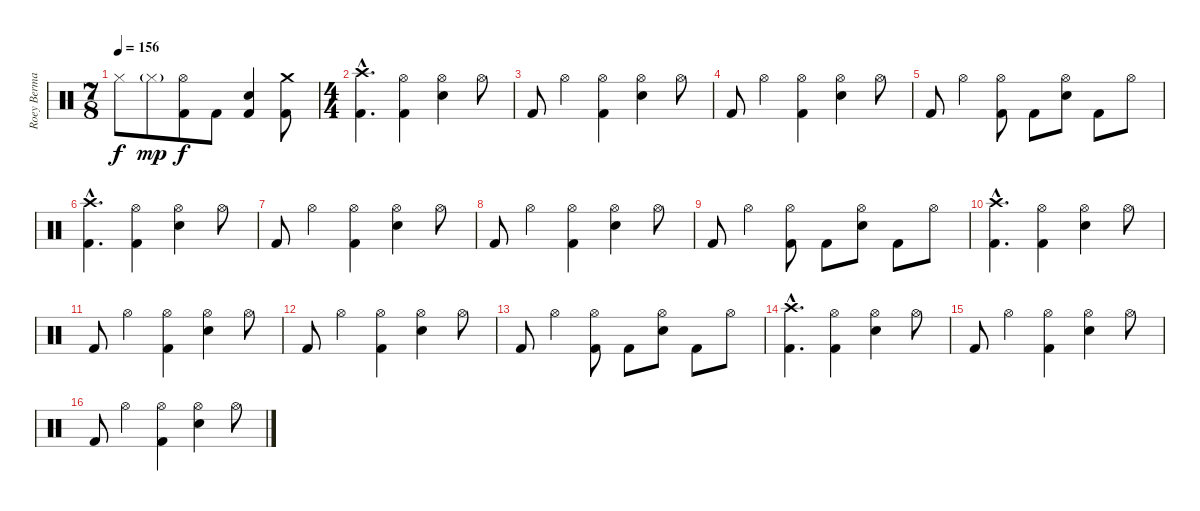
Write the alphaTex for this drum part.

\track ("Roey Berman" "Roey Berma") {instrument percussion}
\staff {score}
\articulation defaults
\ts (7 8)
\tempo 156
\clef neutral
\ks c "Hi-Hat (closed)".8{dy f} "Hi-Hat (closed)"{g}.8{dy mp}
("Hi-Hat (open)" "Kick (hit) 2").8{dy f} "Kick (hit) 2".8 ("Electric Snare (hit)" "Kick (hit) 2").4 ("Crash medium (hit)" "Kick (hit) 2").8 |
\ts (4 4)
("Crash high (hit)"{hac} "Kick (hit) 2"{hac}).4{d} ("Hi-Hat (open)" "Kick (hit) 2").4 ("Hi-Hat (open)" "Electric Snare (hit)").4 "Hi-Hat (open)".8 |
"Kick (hit) 2".8 "Hi-Hat (open)".4 ("Hi-Hat (open)" "Kick (hit) 2").4 ("Hi-Hat (open)" "Electric Snare (hit)").4 "Hi-Hat (open)".8 |
"Kick (hit) 2".8 "Hi-Hat (open)".4 ("Hi-Hat (open)" "Kick (hit) 2").4 ("Hi-Hat (open)" "Electric Snare (hit)").4 "Hi-Hat (open)".8 |
"Kick (hit) 2".8 "Hi-Hat (open)".4 ("Hi-Hat (open)" "Kick (hit) 2").8 "Kick (hit) 2".8 ("Hi-Hat (open)" "Electric Snare (hit)").8 "Kick (hit) 2".8 "Hi-Hat (open)".8 |
("Crash high (hit)"{hac} "Kick (hit) 2"{hac}).4{d} ("Hi-Hat (open)" "Kick (hit) 2").4 ("Hi-Hat (open)" "Electric Snare (hit)").4 "Hi-Hat (open)".8 |
"Kick (hit) 2".8 "Hi-Hat (open)".4 ("Hi-Hat (open)" "Kick (hit) 2").4 ("Hi-Hat (open)" "Electric Snare (hit)").4 "Hi-Hat (open)".8 |
"Kick (hit) 2".8 "Hi-Hat (open)".4 ("Hi-Hat (open)" "Kick (hit) 2").4 ("Hi-Hat (open)" "Electric Snare (hit)").4 "Hi-Hat (open)".8 |
"Kick (hit) 2".8 "Hi-Hat (open)".4 ("Hi-Hat (open)" "Kick (hit) 2").8 "Kick (hit) 2".8 ("Hi-Hat (open)" "Electric Snare (hit)").8 "Kick (hit) 2".8 "Hi-Hat (open)".8 |
("Crash high (hit)"{hac} "Kick (hit) 2"{hac}).4{d} ("Hi-Hat (open)" "Kick (hit) 2").4 ("Hi-Hat (open)" "Electric Snare (hit)").4 "Hi-Hat (open)".8 |
"Kick (hit) 2".8 "Hi-Hat (open)".4 ("Hi-Hat (open)" "Kick (hit) 2").4 ("Hi-Hat (open)" "Electric Snare (hit)").4 "Hi-Hat (open)".8 |
"Kick (hit) 2".8 "Hi-Hat (open)".4 ("Hi-Hat (open)" "Kick (hit) 2").4 ("Hi-Hat (open)" "Electric Snare (hit)").4 "Hi-Hat (open)".8 |
"Kick (hit) 2".8 "Hi-Hat (open)".4 ("Hi-Hat (open)" "Kick (hit) 2").8 "Kick (hit) 2".8 ("Hi-Hat (open)" "Electric Snare (hit)").8 "Kick (hit) 2".8 "Hi-Hat (open)".8 |
("Crash high (hit)"{hac} "Kick (hit) 2"{hac}).4{d} ("Hi-Hat (open)" "Kick (hit) 2").4 ("Hi-Hat (open)" "Electric Snare (hit)").4 "Hi-Hat (open)".8 |
"Kick (hit) 2".8 "Hi-Hat (open)".4 ("Hi-Hat (open)" "Kick (hit) 2").4 ("Hi-Hat (open)" "Electric Snare (hit)").4 "Hi-Hat (open)".8 |
"Kick (hit) 2".8 "Hi-Hat (open)".4 ("Hi-Hat (open)" "Kick (hit) 2").4 ("Hi-Hat (open)" "Electric Snare (hit)").4 "Hi-Hat (open)".8
